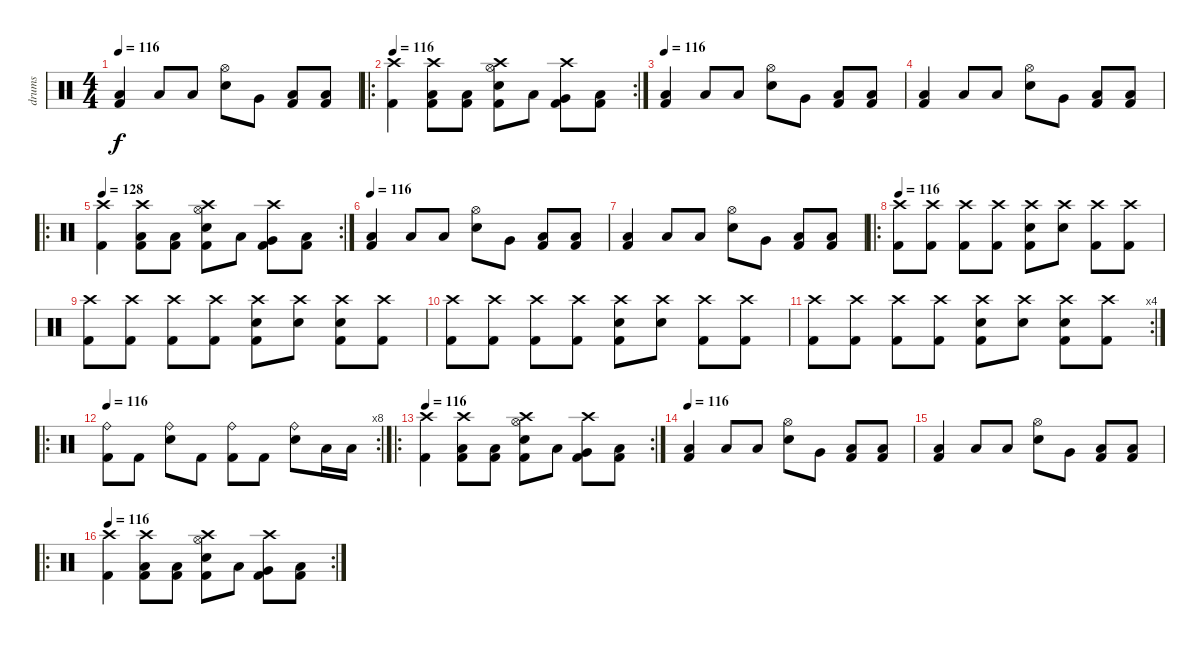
\track ("drums" "drums") {instrument percussion}
\staff {score}
\articulation defaults
\ts (4 4)
\tempo 116
\clef neutral
\ks c
("Low Floor Tom (hit)" "Kick (hit) 2").4{dy f} "Low Floor Tom (hit)".8 "Low Floor Tom (hit)".8 ("Hi-Hat (open)" "Electric Snare (hit)").8 "Very Low Tom (hit)".8 ("Low Floor Tom (hit)" "Kick (hit) 2").8 ("Low Floor Tom (hit)" "Kick (hit) 2").8 |
\ro
\rc 2
\tempo 116
("Crash high (hit)" "Kick (hit) 2").4 ("Crash high (hit)" "Low Floor Tom (hit)" "Kick (hit) 2").8 ("Low Floor Tom (hit)" "Kick (hit) 2").8 ("Crash high (hit)" "Hi-Hat (open)" "Electric Snare (hit)" "Kick (hit) 2").8 "Low Floor Tom (hit)".8 ("Crash high (hit)" "Very Low Tom (hit)" "Kick (hit) 2").8 ("Low Floor Tom (hit)" "Kick (hit) 2").8 |
\tempo 116
("Low Floor Tom (hit)" "Kick (hit) 2").4 "Low Floor Tom (hit)".8 "Low Floor Tom (hit)".8 ("Hi-Hat (open)" "Electric Snare (hit)").8 "Very Low Tom (hit)".8 ("Low Floor Tom (hit)" "Kick (hit) 2").8 ("Low Floor Tom (hit)" "Kick (hit) 2").8 |
("Low Floor Tom (hit)" "Kick (hit) 2").4 "Low Floor Tom (hit)".8 "Low Floor Tom (hit)".8 ("Hi-Hat (open)" "Electric Snare (hit)").8 "Very Low Tom (hit)".8 ("Low Floor Tom (hit)" "Kick (hit) 2").8 ("Low Floor Tom (hit)" "Kick (hit) 2").8 |
\ro
\rc 2
\tempo 128
("Crash high (hit)" "Kick (hit) 2").4 ("Crash high (hit)" "Low Floor Tom (hit)" "Kick (hit) 2").8 ("Low Floor Tom (hit)" "Kick (hit) 2").8 ("Crash high (hit)" "Hi-Hat (open)" "Electric Snare (hit)" "Kick (hit) 2").8 "Low Floor Tom (hit)".8 ("Crash high (hit)" "Very Low Tom (hit)" "Kick (hit) 2").8 ("Low Floor Tom (hit)" "Kick (hit) 2").8 |
\tempo 116
("Low Floor Tom (hit)" "Kick (hit) 2").4 "Low Floor Tom (hit)".8 "Low Floor Tom (hit)".8 ("Hi-Hat (open)" "Electric Snare (hit)").8 "Very Low Tom (hit)".8 ("Low Floor Tom (hit)" "Kick (hit) 2").8 ("Low Floor Tom (hit)" "Kick (hit) 2").8 |
("Low Floor Tom (hit)" "Kick (hit) 2").4 "Low Floor Tom (hit)".8 "Low Floor Tom (hit)".8 ("Hi-Hat (open)" "Electric Snare (hit)").8 "Very Low Tom (hit)".8 ("Low Floor Tom (hit)" "Kick (hit) 2").8 ("Low Floor Tom (hit)" "Kick (hit) 2").8 |
\ro
\tempo 116
("Crash high (hit)" "Kick (hit) 2").8 ("Crash high (hit)" "Kick (hit) 2").8 ("Crash high (hit)" "Kick (hit) 2").8 ("Crash high (hit)" "Kick (hit) 2").8 ("Crash high (hit)" "Electric Snare (hit)" "Kick (hit) 2").8 ("Crash high (hit)" "Electric Snare (hit)").8 ("Crash high (hit)" "Kick (hit) 2").8 ("Crash high (hit)" "Kick (hit) 2").8 |
("Crash high (hit)" "Kick (hit) 2").8 ("Crash high (hit)" "Kick (hit) 2").8 ("Crash high (hit)" "Kick (hit) 2").8 ("Crash high (hit)" "Kick (hit) 2").8 ("Crash high (hit)" "Electric Snare (hit)" "Kick (hit) 2").8 ("Crash high (hit)" "Electric Snare (hit)").8 ("Crash high (hit)" "Electric Snare (hit)" "Kick (hit) 2").8 ("Crash high (hit)" "Kick (hit) 2").8 |
("Crash high (hit)" "Kick (hit) 2").8 ("Crash high (hit)" "Kick (hit) 2").8 ("Crash high (hit)" "Kick (hit) 2").8 ("Crash high (hit)" "Kick (hit) 2").8 ("Crash high (hit)" "Electric Snare (hit)" "Kick (hit) 2").8 ("Crash high (hit)" "Electric Snare (hit)").8 ("Crash high (hit)" "Kick (hit) 2").8 ("Crash high (hit)" "Kick (hit) 2").8 |
\rc 4
("Crash high (hit)" "Kick (hit) 2").8 ("Crash high (hit)" "Kick (hit) 2").8 ("Crash high (hit)" "Kick (hit) 2").8 ("Crash high (hit)" "Kick (hit) 2").8 ("Crash high (hit)" "Electric Snare (hit)" "Kick (hit) 2").8 ("Crash high (hit)" "Electric Snare (hit)").8 ("Crash high (hit)" "Electric Snare (hit)" "Kick (hit) 2").8 ("Crash high (hit)" "Kick (hit) 2").8 |
\ro
\rc 8
\tempo 116
("Ride (bell)" "Kick (hit) 2").8 "Kick (hit) 2".8 ("Ride (bell)" "Electric Snare (hit)").8 "Kick (hit) 2".8 ("Ride (bell)" "Kick (hit) 2").8 "Kick (hit) 2".8 ("Ride (bell)" "Electric Snare (hit)").8 "Low Floor Tom (hit)".16 "Low Floor Tom (hit)".16 |
\ro
\rc 2
\tempo 116
("Crash high (hit)" "Kick (hit) 2").4 ("Crash high (hit)" "Low Floor Tom (hit)" "Kick (hit) 2").8 ("Low Floor Tom (hit)" "Kick (hit) 2").8 ("Crash high (hit)" "Hi-Hat (open)" "Electric Snare (hit)" "Kick (hit) 2").8 "Low Floor Tom (hit)".8 ("Crash high (hit)" "Very Low Tom (hit)" "Kick (hit) 2").8 ("Low Floor Tom (hit)" "Kick (hit) 2").8 |
\tempo 116
("Low Floor Tom (hit)" "Kick (hit) 2").4 "Low Floor Tom (hit)".8 "Low Floor Tom (hit)".8 ("Hi-Hat (open)" "Electric Snare (hit)").8 "Very Low Tom (hit)".8 ("Low Floor Tom (hit)" "Kick (hit) 2").8 ("Low Floor Tom (hit)" "Kick (hit) 2").8 |
("Low Floor Tom (hit)" "Kick (hit) 2").4 "Low Floor Tom (hit)".8 "Low Floor Tom (hit)".8 ("Hi-Hat (open)" "Electric Snare (hit)").8 "Very Low Tom (hit)".8 ("Low Floor Tom (hit)" "Kick (hit) 2").8 ("Low Floor Tom (hit)" "Kick (hit) 2").8 |
\ro
\rc 2
\tempo 116
("Crash high (hit)" "Kick (hit) 2").4 ("Crash high (hit)" "Low Floor Tom (hit)" "Kick (hit) 2").8 ("Low Floor Tom (hit)" "Kick (hit) 2").8 ("Crash high (hit)" "Hi-Hat (open)" "Electric Snare (hit)" "Kick (hit) 2").8 "Low Floor Tom (hit)".8 ("Crash high (hit)" "Very Low Tom (hit)" "Kick (hit) 2").8 ("Low Floor Tom (hit)" "Kick (hit) 2").8
